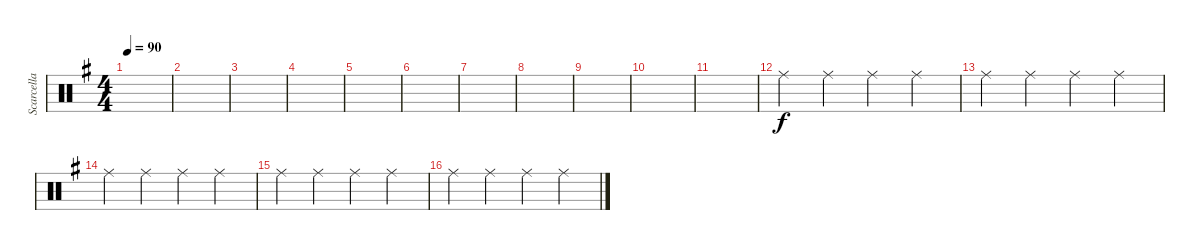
\track ("Scarcella" "Scarcella") {instrument percussion}
\staff {score}
\articulation defaults
\ts (4 4)
\tempo 90
\clef neutral
\ks eminor
|
|
|
|
|
|
|
|
|
|
|
"Ride (middle)".4 "Ride (middle)".4 "Ride (middle)".4 "Ride (middle)".4 |
"Ride (middle)".4 "Ride (middle)".4 "Ride (middle)".4 "Ride (middle)".4 |
"Ride (middle)".4 "Ride (middle)".4 "Ride (middle)".4 "Ride (middle)".4 |
"Ride (middle)".4 "Ride (middle)".4 "Ride (middle)".4 "Ride (middle)".4 |
"Ride (middle)".4 "Ride (middle)".4 "Ride (middle)".4 "Ride (middle)".4
